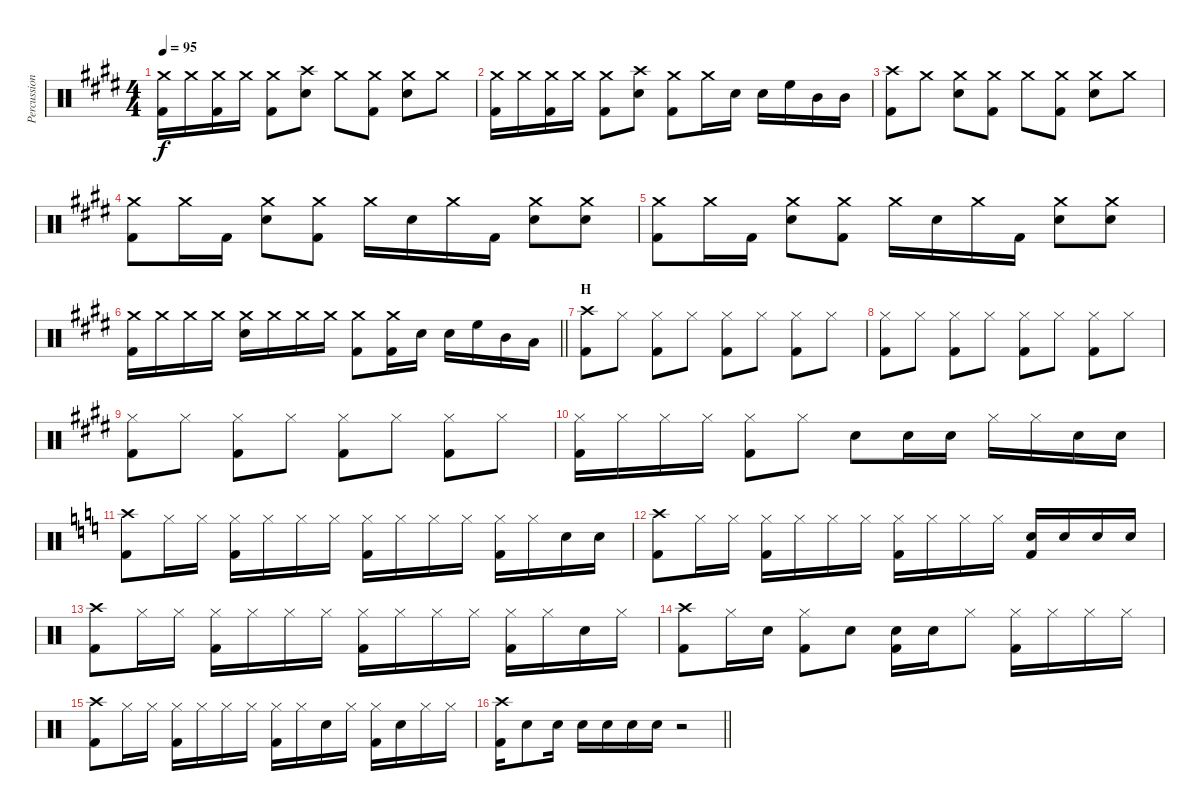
\track ("Percussion" "Percussion") {instrument percussion}
\staff {score}
\articulation defaults
\ts (4 4)
\tempo 95
\clef neutral
\ks e
("Crash medium (hit)" "Kick (hit) 2").16{dy f} "Crash medium (hit)".16 ("Crash medium (hit)" "Kick (hit) 2").16 "Crash medium (hit)".16 ("Crash medium (hit)" "Kick (hit) 2").8 ("Crash high (hit)" "Snare (hit) 2").8 "Crash medium (hit)".8 ("Crash medium (hit)" "Kick (hit) 2").8 ("Crash medium (hit)" "Snare (hit) 2").8 "Crash medium (hit)".8 |
("Crash medium (hit)" "Kick (hit) 2").16 "Crash medium (hit)".16 ("Crash medium (hit)" "Kick (hit) 2").16 "Crash medium (hit)".16 ("Crash medium (hit)" "Kick (hit) 2").8 ("Crash high (hit)" "Snare (hit) 2").8 ("Crash medium (hit)" "Kick (hit) 2").8 "Crash medium (hit)".16 "Snare (hit) 2".16 "Snare (hit) 2".16 "High Floor Tom (hit)".16 "Mid Tom (hit)".16 "Mid Tom (hit)".16 |
("Crash high (hit)" "Kick (hit) 2").8 "Crash medium (hit)".8 ("Crash medium (hit)" "Snare (hit) 2").8 ("Crash medium (hit)" "Kick (hit) 2").8 "Crash medium (hit)".8 ("Crash medium (hit)" "Kick (hit) 2").8 ("Crash medium (hit)" "Snare (hit) 2").8 "Crash medium (hit)".8 |
("Crash medium (hit)" "Kick (hit) 2").8 "Crash medium (hit)".16 "Kick (hit) 2".16 ("Crash medium (hit)" "Snare (hit) 2").8 ("Crash medium (hit)" "Kick (hit) 2").8 "Crash medium (hit)".16 "Snare (hit) 2".16 "Crash medium (hit)".16 "Kick (hit) 2".16 ("Crash medium (hit)" "Snare (hit) 2").8 ("Crash medium (hit)" "Snare (hit) 2").8 |
("Crash medium (hit)" "Kick (hit) 2").8 "Crash medium (hit)".16 "Kick (hit) 2".16 ("Crash medium (hit)" "Snare (hit) 2").8 ("Crash medium (hit)" "Kick (hit) 2").8 "Crash medium (hit)".16 "Snare (hit) 2".16 "Crash medium (hit)".16 "Kick (hit) 2".16 ("Crash medium (hit)" "Snare (hit) 2").8 ("Crash medium (hit)" "Snare (hit) 2").8 |
\barLineRight lightlight
("Crash medium (hit)" "Kick (hit) 2").16 "Crash medium (hit)".16 "Crash medium (hit)".16 "Crash medium (hit)".16 ("Crash medium (hit)" "Snare (hit) 2").16 "Crash medium (hit)".16 "Crash medium (hit)".16 "Crash medium (hit)".16 ("Crash medium (hit)" "Kick (hit) 2").8 ("Crash medium (hit)" "Kick (hit) 2").16 "Snare (hit) 2".16 "Snare (hit) 2".16 "High Floor Tom (hit)".16 "Mid Tom (hit)".16 "Low Tom (hit)".16 |
\section ("" "H")
("Crash high (hit)" "Kick (hit) 2").8 "Hi-Hat (closed)".8 ("Hi-Hat (closed)" "Kick (hit) 2").8 "Hi-Hat (closed)".8 ("Hi-Hat (closed)" "Kick (hit) 2").8 "Hi-Hat (closed)".8 ("Hi-Hat (closed)" "Kick (hit) 2").8 "Hi-Hat (closed)".8 |
("Hi-Hat (closed)" "Kick (hit) 2").8 "Hi-Hat (closed)".8 ("Hi-Hat (closed)" "Kick (hit) 2").8 "Hi-Hat (closed)".8 ("Hi-Hat (closed)" "Kick (hit) 2").8 "Hi-Hat (closed)".8 ("Hi-Hat (closed)" "Kick (hit) 2").8 "Hi-Hat (closed)".8 |
("Hi-Hat (closed)" "Kick (hit) 2").8 "Hi-Hat (closed)".8 ("Hi-Hat (closed)" "Kick (hit) 2").8 "Hi-Hat (closed)".8 ("Hi-Hat (closed)" "Kick (hit) 2").8 "Hi-Hat (closed)".8 ("Hi-Hat (closed)" "Kick (hit) 2").8 "Hi-Hat (closed)".8 |
("Hi-Hat (closed)" "Kick (hit) 2").16 "Hi-Hat (closed)".16 "Hi-Hat (closed)".16 "Hi-Hat (closed)".16 ("Hi-Hat (closed)" "Kick (hit) 2").8 "Hi-Hat (closed)".8 "Snare (hit) 2".8 "Snare (hit) 2".16 "Snare (hit) 2".16 "Hi-Hat (closed)".16 "Hi-Hat (closed)".16 "Snare (hit) 2".16 "Snare (hit) 2".16 |
\ks c
("Crash high (hit)" "Kick (hit) 2").8 "Hi-Hat (closed)".16 "Hi-Hat (closed)".16 ("Hi-Hat (closed)" "Kick (hit) 2").16 "Hi-Hat (closed)".16 "Hi-Hat (closed)".16 "Hi-Hat (closed)".16 ("Hi-Hat (closed)" "Kick (hit) 2").16 "Hi-Hat (closed)".16 "Hi-Hat (closed)".16 "Hi-Hat (closed)".16 ("Hi-Hat (closed)" "Kick (hit) 2").16 "Hi-Hat (closed)".16 "Snare (hit) 2".16 "Snare (hit) 2".16 |
("Crash high (hit)" "Kick (hit) 2").8 "Hi-Hat (closed)".16 "Hi-Hat (closed)".16 ("Hi-Hat (closed)" "Kick (hit) 2").16 "Hi-Hat (closed)".16 "Hi-Hat (closed)".16 "Hi-Hat (closed)".16 ("Hi-Hat (closed)" "Kick (hit) 2").16 "Hi-Hat (closed)".16 "Hi-Hat (closed)".16 "Hi-Hat (closed)".16 ("Snare (hit) 2" "Kick (hit) 2").16 "Snare (hit) 2".16 "Snare (hit) 2".16 "Snare (hit) 2".16 |
("Crash high (hit)" "Kick (hit) 2").8 "Hi-Hat (closed)".16 "Hi-Hat (closed)".16 ("Hi-Hat (closed)" "Kick (hit) 2").16 "Hi-Hat (closed)".16 "Hi-Hat (closed)".16 "Hi-Hat (closed)".16 ("Hi-Hat (closed)" "Kick (hit) 2").16 "Hi-Hat (closed)".16 "Hi-Hat (closed)".16 "Hi-Hat (closed)".16 ("Hi-Hat (closed)" "Kick (hit) 2").16 "Hi-Hat (closed)".16 "Snare (hit) 2".16 "Hi-Hat (closed)".16 |
("Crash high (hit)" "Kick (hit) 2").8 "Hi-Hat (closed)".16 "Snare (hit) 2".16 ("Hi-Hat (closed)" "Kick (hit) 2").8 "Snare (hit) 2".8 ("Snare (hit) 2" "Kick (hit) 2").16 "Snare (hit) 2".16 "Hi-Hat (closed)".8 ("Hi-Hat (closed)" "Kick (hit) 2").16 "Hi-Hat (closed)".16 "Hi-Hat (closed)".16 "Hi-Hat (closed)".16 |
("Crash high (hit)" "Kick (hit) 2").8 "Hi-Hat (closed)".16 "Hi-Hat (closed)".16 ("Hi-Hat (closed)" "Kick (hit) 2").16 "Hi-Hat (closed)".16 "Hi-Hat (closed)".16 "Hi-Hat (closed)".16 ("Hi-Hat (closed)" "Kick (hit) 2").16 "Hi-Hat (closed)".16 "Snare (hit) 2".16 "Hi-Hat (closed)".16 ("Hi-Hat (closed)" "Kick (hit) 2").16 "Snare (hit) 2".16 "Hi-Hat (closed)".16 "Hi-Hat (closed)".16 |
\barLineRight lightlight
("Crash high (hit)" "Kick (hit) 2").16 "Snare (hit) 2".8 "Snare (hit) 2".16 "Snare (hit) 2".16 "Snare (hit) 2".16 "Snare (hit) 2".16 "Snare (hit) 2".16 r.2
